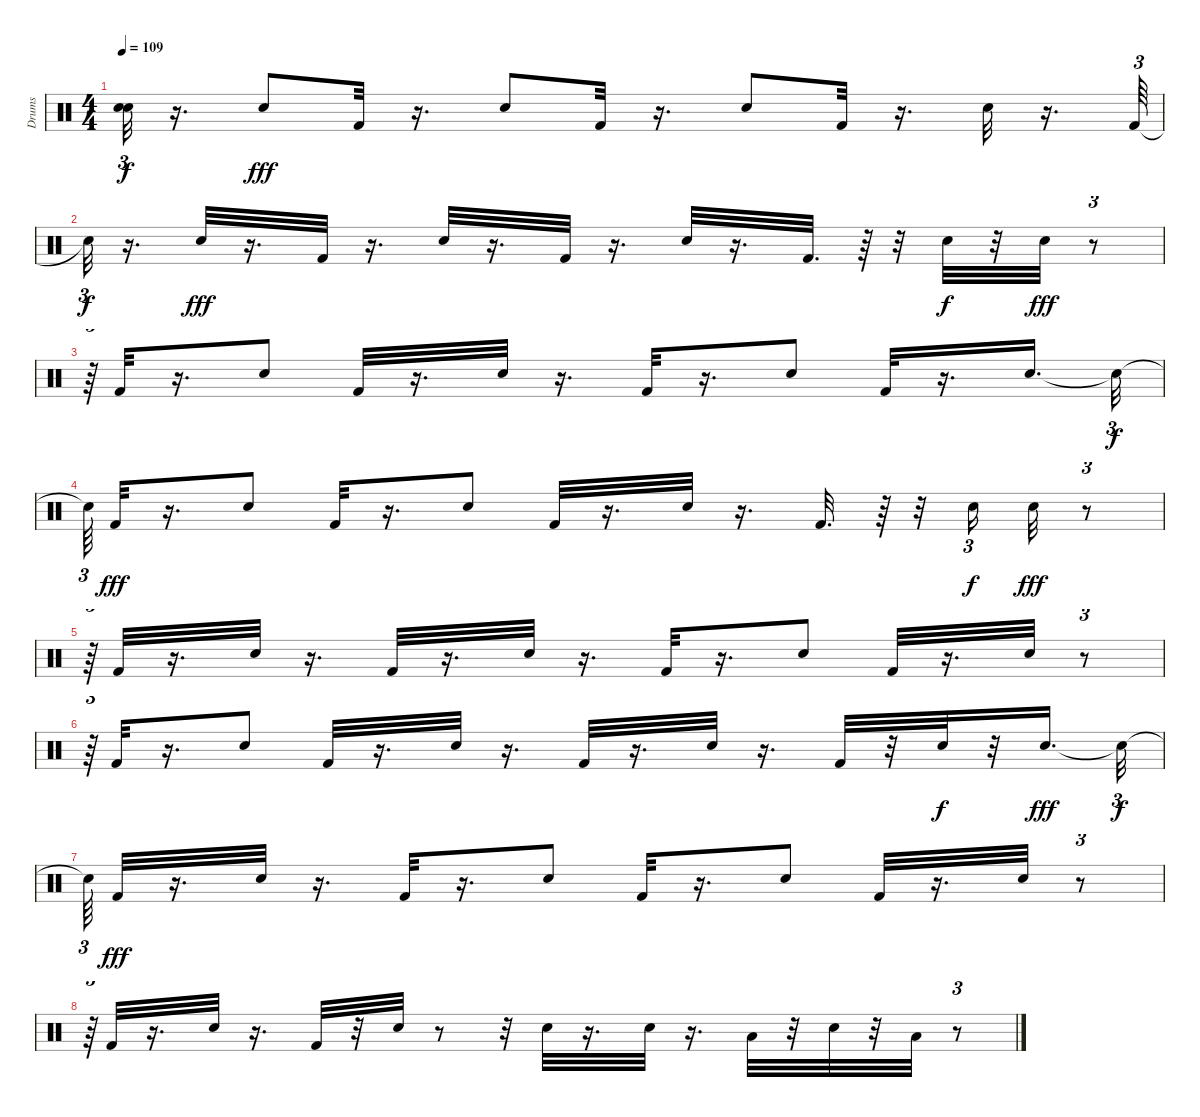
\track ("Drums" "Drums") {instrument percussion}
\staff {score}
\articulation defaults
\ts (4 4)
\tempo 109
\clef neutral
\ks c
("Snare (hit)"{t} "Snare (hit)"{t}).32{tu (3 2) dy f} r.16{d} "Snare (hit) 2".8{dy fff} "Kick (hit) 2".32 r.16{d} "Snare (hit) 2".8 "Kick (hit) 2".32 r.16{d} "Snare (hit) 2".8 "Kick (hit) 2".32 r.16{d} "Snare (hit) 2".32 r.16{d} "Kick (hit) 2".64{tu (3 2)} |
"Snare (hit)"{t}.32{tu (3 2) dy f} r.16{d} "Snare (hit) 2".32{dy fff} r.16{d} "Kick (hit) 2".32 r.16{d} "Snare (hit) 2".32 r.16{d} "Kick (hit) 2".32 r.16{d} "Snare (hit) 2".32 r.16{d} "Kick (hit) 2".32{d} r.64 r.32 "Snare (hit) 2".32{dy f} r.32 "Snare (hit) 2".32{dy fff} r.8{tu (3 2)} |
r.64{tu (3 2)} "Kick (hit) 2".32 r.16{d} "Snare (hit) 2".8 "Kick (hit) 2".32 r.16{d} "Snare (hit) 2".32 r.16{d} "Kick (hit) 2".32 r.16{d} "Snare (hit) 2".8 "Kick (hit) 2".32 r.16{d} "Snare (hit) 2".16{d} "Snare (hit)"{t}.32{tu (3 2) dy f} |
"Snare (hit)"{t}.64{tu (3 2)} "Kick (hit) 2".32{dy fff} r.16{d} "Snare (hit) 2".8 "Kick (hit) 2".32 r.16{d} "Snare (hit) 2".8 "Kick (hit) 2".32 r.16{d} "Snare (hit) 2".32 r.16{d} "Kick (hit) 2".32{d} r.64 r.32 "Snare (hit) 2".16{tu (3 2) dy f} "Snare (hit) 2".32{dy fff} r.8{tu (3 2)} |
r.64{tu (3 2)} "Kick (hit) 2".32 r.16{d} "Snare (hit) 2".32 r.16{d} "Kick (hit) 2".32 r.16{d} "Snare (hit) 2".32 r.16{d} "Kick (hit) 2".32 r.16{d} "Snare (hit) 2".8 "Kick (hit) 2".32 r.16{d} "Snare (hit) 2".32 r.8{tu (3 2)} |
r.64{tu (3 2)} "Kick (hit) 2".32 r.16{d} "Snare (hit) 2".8 "Kick (hit) 2".32 r.16{d} "Snare (hit) 2".32 r.16{d} "Kick (hit) 2".32 r.16{d} "Snare (hit) 2".32 r.16{d} "Kick (hit) 2".32 r.32 "Snare (hit) 2".32{dy f} r.32 "Snare (hit) 2".16{d dy fff} "Snare (hit)"{t}.32{tu (3 2) dy f} |
"Snare (hit)"{t}.64{tu (3 2)} "Kick (hit) 2".32{dy fff} r.16{d} "Snare (hit) 2".32 r.16{d} "Kick (hit) 2".32 r.16{d} "Snare (hit) 2".8 "Kick (hit) 2".32 r.16{d} "Snare (hit) 2".8 "Kick (hit) 2".32 r.16{d} "Snare (hit) 2".32 r.8{tu (3 2)} |
r.64{tu (3 2)} "Kick (hit) 2".32 r.16{d} "Snare (hit) 2".32 r.16{d} "Kick (hit) 2".32 r.32 "Snare (hit) 2".32 r.8 r.32 "Snare (hit) 2".32 r.16{d} "Snare (hit) 2".32 r.16{d} "Low Floor Tom (hit)".32 r.32 "Snare (hit) 2".32 r.32 "Low Tom (hit)".32 r.8{tu (3 2)}
